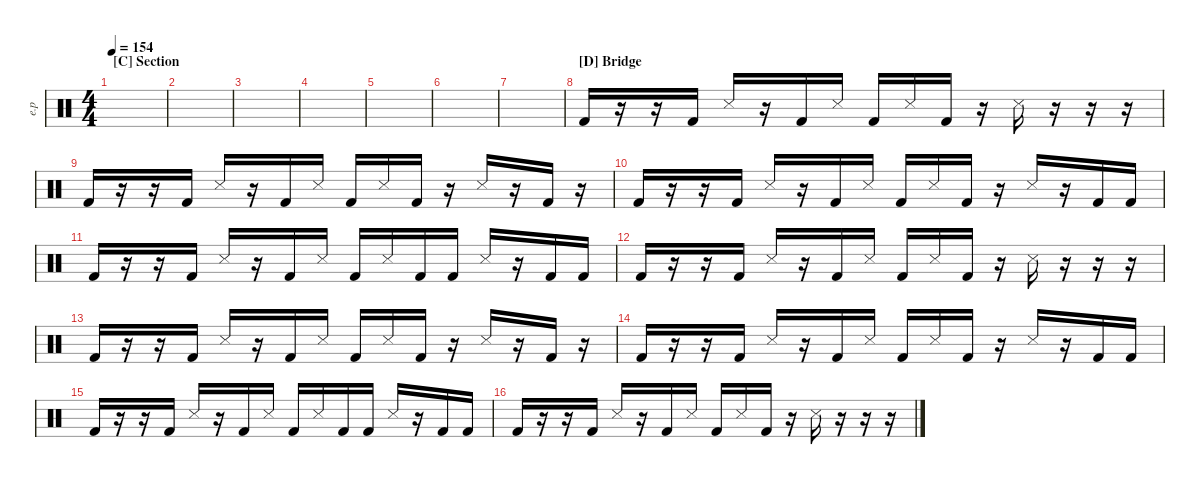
\defaultSystemsLayout 4
\hideDynamics
\bracketExtendMode nobrackets
\otherSystemsTrackNameOrientation horizontal
\track ("Electric Percussion" "e.p") {instrument percussion}
\staff {score}
\articulation defaults
\ts (4 4)
\section ("C" "Section")
\tempo 154
\clef neutral
\ks c
|
|
|
|
|
|
|
\section ("D" "Bridge")
"Kick (hit) 2".16{beam Up} r.16{beam Up} r.16{beam Up} "Kick (hit) 2".16{beam Up} "Snare (side stick) 3".16{beam Up} r.16{beam Up} "Kick (hit) 2".16{beam Up} "Snare (side stick) 3".16{beam Up} "Kick (hit) 2".16{beam Up} "Snare (side stick) 3".16{beam Up} "Kick (hit) 2".16{beam Up} r.16{beam Up} "Snare (side stick) 3".16{beam Down} r.16{beam Down} r.16{beam Down} r.16{beam Down} |
"Kick (hit) 2".16{beam Up} r.16{beam Up} r.16{beam Up} "Kick (hit) 2".16{beam Up} "Snare (side stick) 3".16{beam Up} r.16{beam Up} "Kick (hit) 2".16{beam Up} "Snare (side stick) 3".16{beam Up} "Kick (hit) 2".16{beam Up} "Snare (side stick) 3".16{beam Up} "Kick (hit) 2".16{beam Up} r.16{beam Up} "Snare (side stick) 3".16{beam Up} r.16{beam Up} "Kick (hit) 2".16{beam Up} r.16{beam Up} |
"Kick (hit) 2".16{beam Up} r.16{beam Up} r.16{beam Up} "Kick (hit) 2".16{beam Up} "Snare (side stick) 3".16{beam Up} r.16{beam Up} "Kick (hit) 2".16{beam Up} "Snare (side stick) 3".16{beam Up} "Kick (hit) 2".16{beam Up} "Snare (side stick) 3".16{beam Up} "Kick (hit) 2".16{beam Up} r.16{beam Up} "Snare (side stick) 3".16{beam Up} r.16{beam Up} "Kick (hit) 2".16{beam Up} "Kick (hit) 2".16{beam Up} |
"Kick (hit) 2".16{beam Up} r.16{beam Up} r.16{beam Up} "Kick (hit) 2".16{beam Up} "Snare (side stick) 3".16{beam Up} r.16{beam Up} "Kick (hit) 2".16{beam Up} "Snare (side stick) 3".16{beam Up} "Kick (hit) 2".16{beam Up} "Snare (side stick) 3".16{beam Up} "Kick (hit) 2".16{beam Up} "Kick (hit) 2".16{beam Up} "Snare (side stick) 3".16{beam Up} r.16{beam Up} "Kick (hit) 2".16{beam Up} "Kick (hit) 2".16{beam Up} |
"Kick (hit) 2".16{beam Up} r.16{beam Up} r.16{beam Up} "Kick (hit) 2".16{beam Up} "Snare (side stick) 3".16{beam Up} r.16{beam Up} "Kick (hit) 2".16{beam Up} "Snare (side stick) 3".16{beam Up} "Kick (hit) 2".16{beam Up} "Snare (side stick) 3".16{beam Up} "Kick (hit) 2".16{beam Up} r.16{beam Up} "Snare (side stick) 3".16{beam Down} r.16{beam Down} r.16{beam Down} r.16{beam Down} |
"Kick (hit) 2".16{beam Up} r.16{beam Up} r.16{beam Up} "Kick (hit) 2".16{beam Up} "Snare (side stick) 3".16{beam Up} r.16{beam Up} "Kick (hit) 2".16{beam Up} "Snare (side stick) 3".16{beam Up} "Kick (hit) 2".16{beam Up} "Snare (side stick) 3".16{beam Up} "Kick (hit) 2".16{beam Up} r.16{beam Up} "Snare (side stick) 3".16{beam Up} r.16{beam Up} "Kick (hit) 2".16{beam Up} r.16{beam Up} |
"Kick (hit) 2".16{beam Up} r.16{beam Up} r.16{beam Up} "Kick (hit) 2".16{beam Up} "Snare (side stick) 3".16{beam Up} r.16{beam Up} "Kick (hit) 2".16{beam Up} "Snare (side stick) 3".16{beam Up} "Kick (hit) 2".16{beam Up} "Snare (side stick) 3".16{beam Up} "Kick (hit) 2".16{beam Up} r.16{beam Up} "Snare (side stick) 3".16{beam Up} r.16{beam Up} "Kick (hit) 2".16{beam Up} "Kick (hit) 2".16{beam Up} |
"Kick (hit) 2".16{beam Up} r.16{beam Up} r.16{beam Up} "Kick (hit) 2".16{beam Up} "Snare (side stick) 3".16{beam Up} r.16{beam Up} "Kick (hit) 2".16{beam Up} "Snare (side stick) 3".16{beam Up} "Kick (hit) 2".16{beam Up} "Snare (side stick) 3".16{beam Up} "Kick (hit) 2".16{beam Up} "Kick (hit) 2".16{beam Up} "Snare (side stick) 3".16{beam Up} r.16{beam Up} "Kick (hit) 2".16{beam Up} "Kick (hit) 2".16{beam Up} |
"Kick (hit) 2".16{beam Up} r.16{beam Up} r.16{beam Up} "Kick (hit) 2".16{beam Up} "Snare (side stick) 3".16{beam Up} r.16{beam Up} "Kick (hit) 2".16{beam Up} "Snare (side stick) 3".16{beam Up} "Kick (hit) 2".16{beam Up} "Snare (side stick) 3".16{beam Up} "Kick (hit) 2".16{beam Up} r.16{beam Up} "Snare (side stick) 3".16{beam Down} r.16{beam Down} r.16{beam Down} r.16{beam Down}
